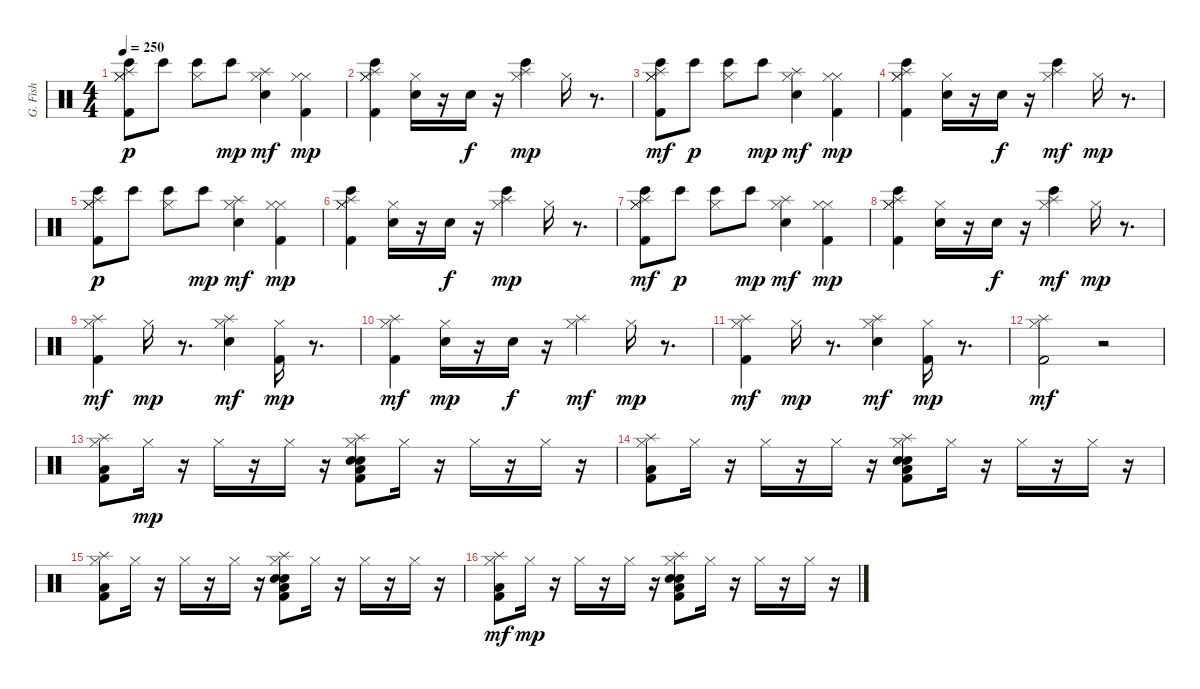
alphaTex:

\track ("G. Fish" "G. Fish") {instrument percussion}
\staff {score}
\articulation defaults
\ts (4 4)
\tempo 250
\clef neutral
\ks c
("Kick (hit) 2" "Hi-Hat (closed)" "Splash (hit)" "Bongo High (hit)" "Hi-Hat (closed)").8{dy p} "Bongo High (hit)".8 ("Hi-Hat (closed)" "Bongo High (hit)").8 "Bongo High (hit)".8{dy mp} ("Hi-Hat (closed)" "Electric Snare (hit)" "Splash (hit)").4{dy mf} ("Kick (hit) 2" "Hi-Hat (closed)" "Hi-Hat (closed)").4{dy mp} |
("Splash (hit)" "Hi-Hat (closed)" "Kick (hit) 2" "Hi-Hat (closed)" "Bongo High (hit)").4 ("Hi-Hat (closed)" "Electric Snare (hit)").16 r.16 "Electric Snare (hit)".16{dy f} r.16 ("Splash (hit)" "Hi-Hat (closed)" "Bongo High (hit)").4{dy mp} "Hi-Hat (closed)".16 r.8{d} |
("Hi-Hat (closed)" "Kick (hit) 2" "Hi-Hat (closed)" "Bongo High (hit)" "Splash (hit)").8{dy mf} "Bongo High (hit)".8{dy p} ("Hi-Hat (closed)" "Bongo High (hit)").8 "Bongo High (hit)".8{dy mp} ("Hi-Hat (closed)" "Electric Snare (hit)" "Splash (hit)").4{dy mf} ("Kick (hit) 2" "Hi-Hat (closed)" "Hi-Hat (closed)").4{dy mp} |
("Kick (hit) 2" "Hi-Hat (closed)" "Hi-Hat (closed)" "Splash (hit)" "Bongo High (hit)").4 ("Electric Snare (hit)" "Hi-Hat (closed)").16 r.16 "Electric Snare (hit)".16{dy f} r.16 ("Hi-Hat (closed)" "Bongo High (hit)" "Splash (hit)").4{dy mf} "Hi-Hat (closed)".16{dy mp} r.8{d} |
("Kick (hit) 2" "Hi-Hat (closed)" "Splash (hit)" "Bongo High (hit)" "Hi-Hat (closed)").8{dy p} "Bongo High (hit)".8 ("Hi-Hat (closed)" "Bongo High (hit)").8 "Bongo High (hit)".8{dy mp} ("Hi-Hat (closed)" "Electric Snare (hit)" "Splash (hit)").4{dy mf} ("Kick (hit) 2" "Hi-Hat (closed)" "Hi-Hat (closed)").4{dy mp} |
("Splash (hit)" "Hi-Hat (closed)" "Kick (hit) 2" "Hi-Hat (closed)" "Bongo High (hit)").4 ("Hi-Hat (closed)" "Electric Snare (hit)").16 r.16 "Electric Snare (hit)".16{dy f} r.16 ("Splash (hit)" "Hi-Hat (closed)" "Bongo High (hit)").4{dy mp} "Hi-Hat (closed)".16 r.8{d} |
("Hi-Hat (closed)" "Kick (hit) 2" "Hi-Hat (closed)" "Bongo High (hit)" "Splash (hit)").8{dy mf} "Bongo High (hit)".8{dy p} ("Hi-Hat (closed)" "Bongo High (hit)").8 "Bongo High (hit)".8{dy mp} ("Hi-Hat (closed)" "Electric Snare (hit)" "Splash (hit)").4{dy mf} ("Kick (hit) 2" "Hi-Hat (closed)" "Hi-Hat (closed)").4{dy mp} |
("Kick (hit) 2" "Hi-Hat (closed)" "Hi-Hat (closed)" "Splash (hit)" "Bongo High (hit)").4 ("Electric Snare (hit)" "Hi-Hat (closed)").16 r.16 "Electric Snare (hit)".16{dy f} r.16 ("Hi-Hat (closed)" "Bongo High (hit)" "Splash (hit)").4{dy mf} "Hi-Hat (closed)".16{dy mp} r.8{d} |
("Hi-Hat (closed)" "Kick (hit) 2" "Splash (hit)").4{dy mf} "Hi-Hat (closed)".16{dy mp} r.8{d} ("Hi-Hat (closed)" "Electric Snare (hit)" "Splash (hit)").4{dy mf} ("Kick (hit) 2" "Hi-Hat (closed)").16{dy mp} r.8{d} |
("Kick (hit) 2" "Hi-Hat (closed)" "Splash (hit)").4{dy mf} ("Electric Snare (hit)" "Hi-Hat (closed)").16{dy mp} r.16 "Electric Snare (hit)".16{dy f} r.16 ("Hi-Hat (closed)" "Splash (hit)").4{dy mf} "Hi-Hat (closed)".16{dy mp} r.8{d} |
("Hi-Hat (closed)" "Kick (hit) 2" "Splash (hit)").4{dy mf} "Hi-Hat (closed)".16{dy mp} r.8{d} ("Hi-Hat (closed)" "Electric Snare (hit)" "Splash (hit)").4{dy mf} ("Kick (hit) 2" "Hi-Hat (closed)").16{dy mp} r.8{d} |
("Kick (hit) 2" "Hi-Hat (closed)" "Splash (hit)").2{dy mf} r.2 |
("Low Floor Tom (hit)" "Hi-Hat (closed)" "Kick (hit) 2" "Splash (hit)").8 "Hi-Hat (closed)".16{dy mp} r.16 "Hi-Hat (closed)".16 r.16 "Hi-Hat (closed)".16 r.16 ("Low Floor Tom (hit)" "Snare (hit) 2" "Electric Snare (hit)" "Kick (hit) 2" "Splash (hit)" "Hi-Hat (closed)").8 "Hi-Hat (closed)".16 r.16 "Hi-Hat (closed)".16 r.16 "Hi-Hat (closed)".16 r.16 |
("Low Floor Tom (hit)" "Kick (hit) 2" "Splash (hit)" "Hi-Hat (closed)").8 "Hi-Hat (closed)".16 r.16 "Hi-Hat (closed)".16 r.16 "Hi-Hat (closed)".16 r.16 ("Snare (hit) 2" "Electric Snare (hit)" "Kick (hit) 2" "Splash (hit)" "Low Floor Tom (hit)" "Hi-Hat (closed)").8 "Hi-Hat (closed)".16 r.16 "Hi-Hat (closed)".16 r.16 "Hi-Hat (closed)".16 r.16 |
("Kick (hit) 2" "Splash (hit)" "Hi-Hat (closed)" "Low Floor Tom (hit)").8 "Hi-Hat (closed)".16 r.16 "Hi-Hat (closed)".16 r.16 "Hi-Hat (closed)".16 r.16 ("Snare (hit) 2" "Kick (hit) 2" "Splash (hit)" "Electric Snare (hit)" "Low Floor Tom (hit)" "Hi-Hat (closed)").8 "Hi-Hat (closed)".16 r.16 "Hi-Hat (closed)".16 r.16 "Hi-Hat (closed)".16 r.16 |
("Hi-Hat (closed)" "Low Floor Tom (hit)" "Kick (hit) 2" "Splash (hit)").8{dy mf} "Hi-Hat (closed)".16{dy mp} r.16 "Hi-Hat (closed)".16 r.16 "Hi-Hat (closed)".16 r.16 ("Snare (hit) 2" "Electric Snare (hit)" "Kick (hit) 2" "Splash (hit)" "Low Floor Tom (hit)" "Hi-Hat (closed)").8 "Hi-Hat (closed)".16 r.16 "Hi-Hat (closed)".16 r.16 "Hi-Hat (closed)".16 r.16
